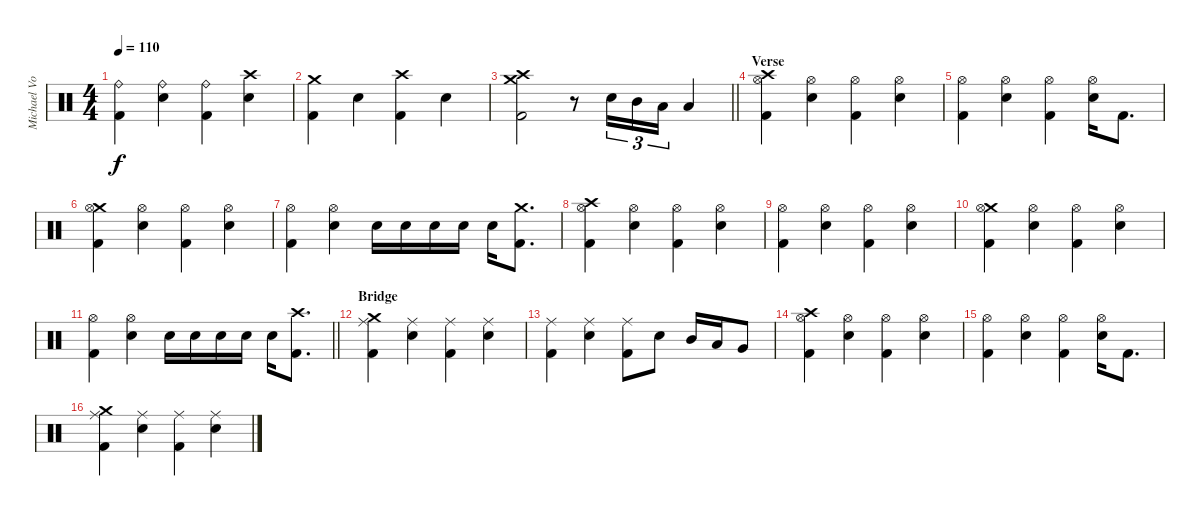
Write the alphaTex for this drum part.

\track ("Michael Von Knorring" "Michael Vo") {instrument percussion}
\staff {score}
\articulation defaults
\ts (4 4)
\tempo 110
\clef neutral
\ks c
("Ride (bell)" "Kick (hit) 2").4{dy f} ("Ride (bell)" "Snare (hit) 2").4 ("Ride (bell)" "Kick (hit) 2").4 ("Crash high (hit)" "Snare (hit) 2").4 |
("Crash medium (hit)" "Kick (hit) 2").4 "Snare (hit) 2".4 ("Crash high (hit)" "Kick (hit) 2").4 "Snare (hit) 2".4 |
\barLineRight lightlight
("Crash high (hit)" "Crash medium (hit)" "Kick (hit) 2").2 r.8 "Snare (hit) 2".16{tu (3 2)} "Mid Tom (hit)".16{tu (3 2)} "Low Tom (hit)".16{tu (3 2)} "Low Floor Tom (hit)".4 |
\section ("" "Verse")
("Crash high (hit)" "Hi-Hat (open)" "Kick (hit) 2").4 ("Hi-Hat (open)" "Snare (hit) 2").4 ("Hi-Hat (open)" "Kick (hit) 2").4 ("Hi-Hat (open)" "Snare (hit) 2").4 |
("Hi-Hat (open)" "Kick (hit) 2").4 ("Hi-Hat (open)" "Snare (hit) 2").4 ("Hi-Hat (open)" "Kick (hit) 2").4 ("Hi-Hat (open)" "Snare (hit) 2").16 "Kick (hit) 2".8{d} |
("Crash medium (hit)" "Hi-Hat (open)" "Kick (hit) 2").4 ("Hi-Hat (open)" "Snare (hit) 2").4 ("Hi-Hat (open)" "Kick (hit) 2").4 ("Hi-Hat (open)" "Snare (hit) 2").4 |
("Hi-Hat (open)" "Kick (hit) 2").4 ("Hi-Hat (open)" "Snare (hit) 2").4 "Snare (hit) 2".16 "Snare (hit) 2".16 "Snare (hit) 2".16 "Snare (hit) 2".16 "Snare (hit) 2".16 ("Crash medium (hit)" "Kick (hit) 2").8{d} |
("Crash high (hit)" "Hi-Hat (open)" "Kick (hit) 2").4 ("Hi-Hat (open)" "Snare (hit) 2").4 ("Hi-Hat (open)" "Kick (hit) 2").4 ("Hi-Hat (open)" "Snare (hit) 2").4 |
("Hi-Hat (open)" "Kick (hit) 2").4 ("Hi-Hat (open)" "Snare (hit) 2").4 ("Hi-Hat (open)" "Kick (hit) 2").4 ("Hi-Hat (open)" "Snare (hit) 2").4 |
("Crash medium (hit)" "Hi-Hat (open)" "Kick (hit) 2").4 ("Hi-Hat (open)" "Snare (hit) 2").4 ("Hi-Hat (open)" "Kick (hit) 2").4 ("Hi-Hat (open)" "Snare (hit) 2").4 |
\barLineRight lightlight
("Hi-Hat (open)" "Kick (hit) 2").4 ("Hi-Hat (open)" "Snare (hit) 2").4 "Snare (hit) 2".16 "Snare (hit) 2".16 "Snare (hit) 2".16 "Snare (hit) 2".16 "Snare (hit) 2".16 ("Crash high (hit)" "Kick (hit) 2").8{d} |
\section ("" "Bridge")
("Crash medium (hit)" "Ride (middle)" "Kick (hit) 2").4 ("Ride (middle)" "Snare (hit) 2").4 ("Ride (middle)" "Kick (hit) 2").4 ("Ride (middle)" "Snare (hit) 2").4 |
("Ride (middle)" "Kick (hit) 2").4 ("Ride (middle)" "Snare (hit) 2").4 ("Ride (middle)" "Kick (hit) 2").8 "Snare (hit) 2".8 "Mid Tom (hit)".16 "Low Tom (hit)".16 "Very Low Tom (hit)".8 |
("Crash high (hit)" "Hi-Hat (open)" "Kick (hit) 2").4 ("Hi-Hat (open)" "Snare (hit) 2").4 ("Hi-Hat (open)" "Kick (hit) 2").4 ("Hi-Hat (open)" "Snare (hit) 2").4 |
("Hi-Hat (open)" "Kick (hit) 2").4 ("Hi-Hat (open)" "Snare (hit) 2").4 ("Hi-Hat (open)" "Kick (hit) 2").4 ("Hi-Hat (open)" "Snare (hit) 2").16 "Kick (hit) 2".8{d} |
("Crash medium (hit)" "Ride (middle)" "Kick (hit) 2").4 ("Ride (middle)" "Snare (hit) 2").4 ("Ride (middle)" "Kick (hit) 2").4 ("Ride (middle)" "Snare (hit) 2").4
